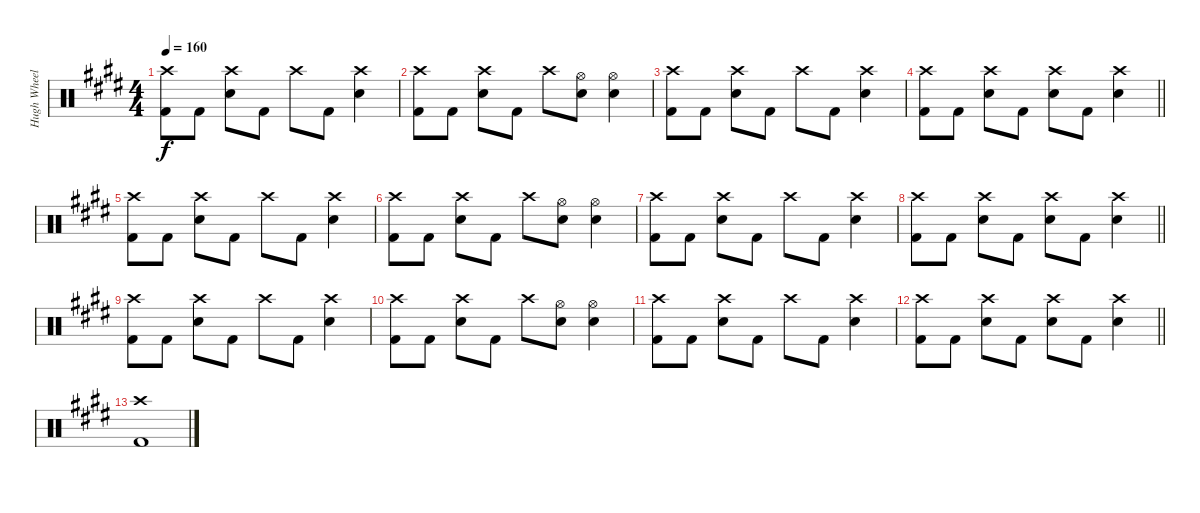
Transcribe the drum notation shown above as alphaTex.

\track ("Hugh Wheeler - Drums" "Hugh Wheel") {instrument percussion}
\staff {score}
\articulation defaults
\ts (4 4)
\tempo 160
\clef neutral
\ks e
("Crash high (hit)" "Kick (hit) 2").8{dy f} "Kick (hit) 2".8 ("Crash high (hit)" "Electric Snare (hit)").8 "Kick (hit) 2".8 "Crash high (hit)".8 "Kick (hit) 2".8 ("Crash high (hit)" "Electric Snare (hit)").4 |
("Crash high (hit)" "Kick (hit) 2").8 "Kick (hit) 2".8 ("Crash high (hit)" "Electric Snare (hit)").8 "Kick (hit) 2".8 "Crash high (hit)".8 ("Hi-Hat (open)" "Electric Snare (hit)").8 ("Hi-Hat (open)" "Electric Snare (hit)").4 |
("Crash high (hit)" "Kick (hit) 2").8 "Kick (hit) 2".8 ("Crash high (hit)" "Electric Snare (hit)").8 "Kick (hit) 2".8 "Crash high (hit)".8 "Kick (hit) 2".8 ("Crash high (hit)" "Electric Snare (hit)").4 |
\barLineRight lightlight
("Crash high (hit)" "Kick (hit) 2").8 "Kick (hit) 2".8 ("Crash high (hit)" "Electric Snare (hit)").8 "Kick (hit) 2".8 ("Crash high (hit)" "Electric Snare (hit)").8 "Kick (hit) 2".8 ("Crash high (hit)" "Electric Snare (hit)").4 |
("Crash high (hit)" "Kick (hit) 2").8 "Kick (hit) 2".8 ("Crash high (hit)" "Electric Snare (hit)").8 "Kick (hit) 2".8 "Crash high (hit)".8 "Kick (hit) 2".8 ("Crash high (hit)" "Electric Snare (hit)").4 |
("Crash high (hit)" "Kick (hit) 2").8 "Kick (hit) 2".8 ("Crash high (hit)" "Electric Snare (hit)").8 "Kick (hit) 2".8 "Crash high (hit)".8 ("Hi-Hat (open)" "Electric Snare (hit)").8 ("Hi-Hat (open)" "Electric Snare (hit)").4 |
("Crash high (hit)" "Kick (hit) 2").8 "Kick (hit) 2".8 ("Crash high (hit)" "Electric Snare (hit)").8 "Kick (hit) 2".8 "Crash high (hit)".8 "Kick (hit) 2".8 ("Crash high (hit)" "Electric Snare (hit)").4 |
\barLineRight lightlight
("Crash high (hit)" "Kick (hit) 2").8 "Kick (hit) 2".8 ("Crash high (hit)" "Electric Snare (hit)").8 "Kick (hit) 2".8 ("Crash high (hit)" "Electric Snare (hit)").8 "Kick (hit) 2".8 ("Crash high (hit)" "Electric Snare (hit)").4 |
("Crash high (hit)" "Kick (hit) 2").8 "Kick (hit) 2".8 ("Crash high (hit)" "Electric Snare (hit)").8 "Kick (hit) 2".8 "Crash high (hit)".8 "Kick (hit) 2".8 ("Crash high (hit)" "Electric Snare (hit)").4 |
("Crash high (hit)" "Kick (hit) 2").8 "Kick (hit) 2".8 ("Crash high (hit)" "Electric Snare (hit)").8 "Kick (hit) 2".8 "Crash high (hit)".8 ("Hi-Hat (open)" "Electric Snare (hit)").8 ("Hi-Hat (open)" "Electric Snare (hit)").4 |
("Crash high (hit)" "Kick (hit) 2").8 "Kick (hit) 2".8 ("Crash high (hit)" "Electric Snare (hit)").8 "Kick (hit) 2".8 "Crash high (hit)".8 "Kick (hit) 2".8 ("Crash high (hit)" "Electric Snare (hit)").4 |
\barLineRight lightlight
("Crash high (hit)" "Kick (hit) 2").8 "Kick (hit) 2".8 ("Crash high (hit)" "Electric Snare (hit)").8 "Kick (hit) 2".8 ("Crash high (hit)" "Electric Snare (hit)").8 "Kick (hit) 2".8 ("Crash high (hit)" "Electric Snare (hit)").4 |
("Crash high (hit)" "Kick (hit) 2").1
